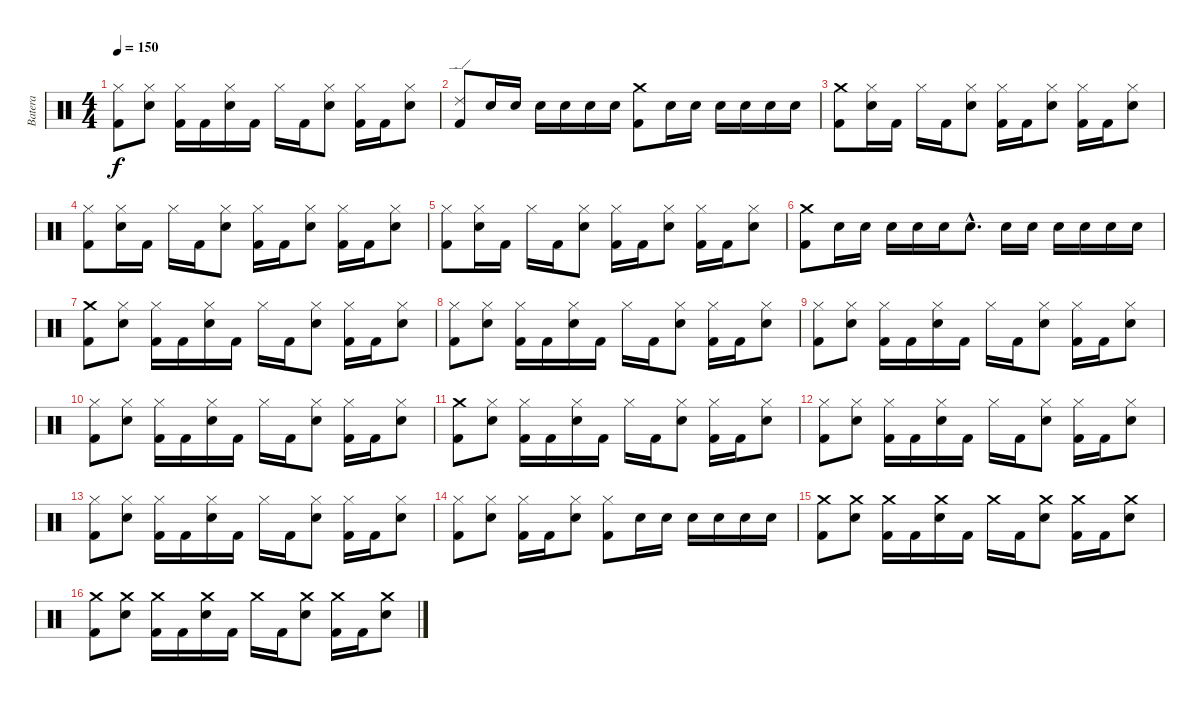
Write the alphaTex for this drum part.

\track ("Batera" "Batera") {instrument percussion}
\staff {score}
\articulation defaults
\ts (4 4)
\tempo 150
\clef neutral
\ks c
("Kick (hit) 2" "Hi-Hat (closed)").8{dy f} ("Snare (hit) 2" "Hi-Hat (closed)").8 ("Kick (hit) 2" "Hi-Hat (closed)").16 "Kick (hit) 2".16 ("Snare (hit) 2" "Hi-Hat (closed)").16 "Kick (hit) 2".16 "Hi-Hat (closed)".16 "Kick (hit) 2".16 ("Snare (hit) 2" "Hi-Hat (closed)").8 ("Kick (hit) 2" "Hi-Hat (closed)").16 "Kick (hit) 2".16 ("Snare (hit) 2" "Hi-Hat (closed)").8 |
("Kick (hit) 2" "Ride (edge) 2").8 "Snare (hit) 2".16 "Snare (hit) 2".16 "Snare (hit) 2".16 "Snare (hit) 2".16 "Snare (hit) 2".16 "Snare (hit) 2".16 ("Kick (hit) 2" "Crash medium (hit)").8 "Snare (hit) 2".16 "Snare (hit) 2".16 "Snare (hit) 2".16 "Snare (hit) 2".16 "Snare (hit) 2".16 "Snare (hit) 2".16 |
("Kick (hit) 2" "Crash medium (hit)").8 ("Snare (hit) 2" "Hi-Hat (closed)").16 "Kick (hit) 2".16 "Hi-Hat (closed)".16 "Kick (hit) 2".16 ("Snare (hit) 2" "Hi-Hat (closed)").8 ("Kick (hit) 2" "Hi-Hat (closed)").16 "Kick (hit) 2".16 ("Snare (hit) 2" "Hi-Hat (closed)").8 ("Kick (hit) 2" "Hi-Hat (closed)").16 "Kick (hit) 2".16 ("Snare (hit) 2" "Hi-Hat (closed)").8 |
("Kick (hit) 2" "Hi-Hat (closed)").8 ("Snare (hit) 2" "Hi-Hat (closed)").16 "Kick (hit) 2".16 "Hi-Hat (closed)".16 "Kick (hit) 2".16 ("Snare (hit) 2" "Hi-Hat (closed)").8 ("Kick (hit) 2" "Hi-Hat (closed)").16 "Kick (hit) 2".16 ("Snare (hit) 2" "Hi-Hat (closed)").8 ("Kick (hit) 2" "Hi-Hat (closed)").16 "Kick (hit) 2".16 ("Snare (hit) 2" "Hi-Hat (closed)").8 |
("Kick (hit) 2" "Hi-Hat (closed)").8 ("Snare (hit) 2" "Hi-Hat (closed)").16 "Kick (hit) 2".16 "Hi-Hat (closed)".16 "Kick (hit) 2".16 ("Snare (hit) 2" "Hi-Hat (closed)").8 ("Kick (hit) 2" "Hi-Hat (closed)").16 "Kick (hit) 2".16 ("Snare (hit) 2" "Hi-Hat (closed)").8 ("Kick (hit) 2" "Hi-Hat (closed)").16 "Kick (hit) 2".16 ("Snare (hit) 2" "Hi-Hat (closed)").8 |
("Kick (hit) 2" "Crash medium (hit)").8 "Snare (hit) 2".16 "Snare (hit) 2".16 "Snare (hit) 2".16 "Snare (hit) 2".16 "Snare (hit) 2".16 "Snare (hit) 2"{hac}.8{d} "Snare (hit) 2".16 "Snare (hit) 2".16 "Snare (hit) 2".16 "Snare (hit) 2".16 "Snare (hit) 2".16 "Snare (hit) 2".16 |
("Kick (hit) 2" "Crash medium (hit)").8 ("Snare (hit) 2" "Hi-Hat (closed)").8 ("Kick (hit) 2" "Hi-Hat (closed)").16 "Kick (hit) 2".16 ("Snare (hit) 2" "Hi-Hat (closed)").16 "Kick (hit) 2".16 "Hi-Hat (closed)".16 "Kick (hit) 2".16 ("Snare (hit) 2" "Hi-Hat (closed)").8 ("Kick (hit) 2" "Hi-Hat (closed)").16 "Kick (hit) 2".16 ("Snare (hit) 2" "Hi-Hat (closed)").8 |
("Kick (hit) 2" "Hi-Hat (closed)").8 ("Snare (hit) 2" "Hi-Hat (closed)").8 ("Kick (hit) 2" "Hi-Hat (closed)").16 "Kick (hit) 2".16 ("Snare (hit) 2" "Hi-Hat (closed)").16 "Kick (hit) 2".16 "Hi-Hat (closed)".16 "Kick (hit) 2".16 ("Snare (hit) 2" "Hi-Hat (closed)").8 ("Kick (hit) 2" "Hi-Hat (closed)").16 "Kick (hit) 2".16 ("Snare (hit) 2" "Hi-Hat (closed)").8 |
("Kick (hit) 2" "Hi-Hat (closed)").8 ("Snare (hit) 2" "Hi-Hat (closed)").8 ("Kick (hit) 2" "Hi-Hat (closed)").16 "Kick (hit) 2".16 ("Snare (hit) 2" "Hi-Hat (closed)").16 "Kick (hit) 2".16 "Hi-Hat (closed)".16 "Kick (hit) 2".16 ("Snare (hit) 2" "Hi-Hat (closed)").8 ("Kick (hit) 2" "Hi-Hat (closed)").16 "Kick (hit) 2".16 ("Snare (hit) 2" "Hi-Hat (closed)").8 |
("Kick (hit) 2" "Hi-Hat (closed)").8 ("Snare (hit) 2" "Hi-Hat (closed)").8 ("Kick (hit) 2" "Hi-Hat (closed)").16 "Kick (hit) 2".16 ("Snare (hit) 2" "Hi-Hat (closed)").16 "Kick (hit) 2".16 "Hi-Hat (closed)".16 "Kick (hit) 2".16 ("Snare (hit) 2" "Hi-Hat (closed)").8 ("Kick (hit) 2" "Hi-Hat (closed)").16 "Kick (hit) 2".16 ("Snare (hit) 2" "Hi-Hat (closed)").8 |
("Kick (hit) 2" "Crash medium (hit)").8 ("Snare (hit) 2" "Hi-Hat (closed)").8 ("Kick (hit) 2" "Hi-Hat (closed)").16 "Kick (hit) 2".16 ("Snare (hit) 2" "Hi-Hat (closed)").16 "Kick (hit) 2".16 "Hi-Hat (closed)".16 "Kick (hit) 2".16 ("Snare (hit) 2" "Hi-Hat (closed)").8 ("Kick (hit) 2" "Hi-Hat (closed)").16 "Kick (hit) 2".16 ("Snare (hit) 2" "Hi-Hat (closed)").8 |
("Kick (hit) 2" "Hi-Hat (closed)").8 ("Snare (hit) 2" "Hi-Hat (closed)").8 ("Kick (hit) 2" "Hi-Hat (closed)").16 "Kick (hit) 2".16 ("Snare (hit) 2" "Hi-Hat (closed)").16 "Kick (hit) 2".16 "Hi-Hat (closed)".16 "Kick (hit) 2".16 ("Snare (hit) 2" "Hi-Hat (closed)").8 ("Kick (hit) 2" "Hi-Hat (closed)").16 "Kick (hit) 2".16 ("Snare (hit) 2" "Hi-Hat (closed)").8 |
("Kick (hit) 2" "Hi-Hat (closed)").8 ("Snare (hit) 2" "Hi-Hat (closed)").8 ("Kick (hit) 2" "Hi-Hat (closed)").16 "Kick (hit) 2".16 ("Snare (hit) 2" "Hi-Hat (closed)").16 "Kick (hit) 2".16 "Hi-Hat (closed)".16 "Kick (hit) 2".16 ("Snare (hit) 2" "Hi-Hat (closed)").8 ("Kick (hit) 2" "Hi-Hat (closed)").16 "Kick (hit) 2".16 ("Snare (hit) 2" "Hi-Hat (closed)").8 |
("Kick (hit) 2" "Hi-Hat (closed)").8 ("Snare (hit) 2" "Hi-Hat (closed)").8 ("Kick (hit) 2" "Hi-Hat (closed)").16 "Kick (hit) 2".16 ("Snare (hit) 2" "Hi-Hat (closed)").8 ("Kick (hit) 2" "Hi-Hat (closed)").8 "Snare (hit) 2".16 "Snare (hit) 2".16 "Snare (hit) 2".16 "Snare (hit) 2".16 "Snare (hit) 2".16 "Snare (hit) 2".16 |
("Kick (hit) 2" "Crash medium (hit)").8 ("Snare (hit) 2" "Crash medium (hit)").8 ("Kick (hit) 2" "Crash medium (hit)").16 "Kick (hit) 2".16 ("Snare (hit) 2" "Crash medium (hit)").16 "Kick (hit) 2".16 "Crash medium (hit)".16 "Kick (hit) 2".16 ("Snare (hit) 2" "Crash medium (hit)").8 ("Kick (hit) 2" "Crash medium (hit)").16 "Kick (hit) 2".16 ("Snare (hit) 2" "Crash medium (hit)").8 |
("Kick (hit) 2" "Crash medium (hit)").8 ("Snare (hit) 2" "Crash medium (hit)").8 ("Kick (hit) 2" "Crash medium (hit)").16 "Kick (hit) 2".16 ("Snare (hit) 2" "Crash medium (hit)").16 "Kick (hit) 2".16 "Crash medium (hit)".16 "Kick (hit) 2".16 ("Snare (hit) 2" "Crash medium (hit)").8 ("Kick (hit) 2" "Crash medium (hit)").16 "Kick (hit) 2".16 ("Snare (hit) 2" "Crash medium (hit)").8
